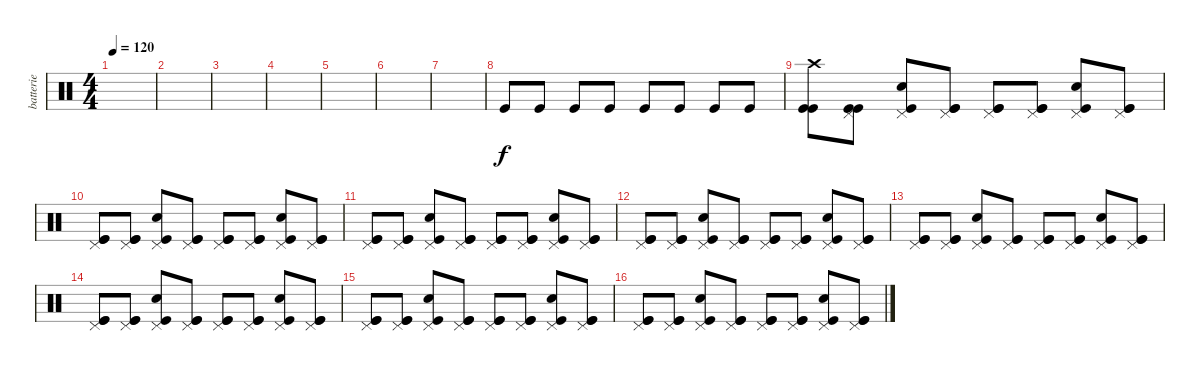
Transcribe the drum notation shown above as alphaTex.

\track ("batterie" "batterie") {instrument percussion}
\staff {score}
\articulation defaults
\ts (4 4)
\tempo 120
\clef neutral
\ks c
|
|
|
|
|
|
|
"Kick (hit)".8 "Kick (hit)".8 "Kick (hit)".8 "Kick (hit)".8 "Kick (hit)".8 "Kick (hit)".8 "Kick (hit)".8 "Kick (hit)".8 |
("Kick (hit)" "Kick (hit)" "Crash high (hit)").8 ("Kick (hit)" "Kick (hit)" "Pedal Hi-Hat (hit)").8 ("Electric Snare (hit)" "Kick (hit)" "Pedal Hi-Hat (hit)").8 ("Kick (hit)" "Kick (hit)" "Pedal Hi-Hat (hit)").8 ("Kick (hit)" "Kick (hit)" "Pedal Hi-Hat (hit)").8 ("Kick (hit)" "Kick (hit)" "Pedal Hi-Hat (hit)").8 ("Electric Snare (hit)" "Kick (hit)" "Pedal Hi-Hat (hit)").8 ("Kick (hit)" "Kick (hit)" "Pedal Hi-Hat (hit)").8 |
("Kick (hit)" "Kick (hit)" "Pedal Hi-Hat (hit)").8 ("Kick (hit)" "Kick (hit)" "Pedal Hi-Hat (hit)").8 ("Electric Snare (hit)" "Kick (hit)" "Pedal Hi-Hat (hit)").8 ("Kick (hit)" "Kick (hit)" "Pedal Hi-Hat (hit)").8 ("Kick (hit)" "Kick (hit)" "Pedal Hi-Hat (hit)").8 ("Kick (hit)" "Kick (hit)" "Pedal Hi-Hat (hit)").8 ("Electric Snare (hit)" "Kick (hit)" "Pedal Hi-Hat (hit)").8 ("Kick (hit)" "Kick (hit)" "Pedal Hi-Hat (hit)").8 |
("Kick (hit)" "Kick (hit)" "Pedal Hi-Hat (hit)").8 ("Kick (hit)" "Kick (hit)" "Pedal Hi-Hat (hit)").8 ("Electric Snare (hit)" "Kick (hit)" "Pedal Hi-Hat (hit)").8 ("Kick (hit)" "Kick (hit)" "Pedal Hi-Hat (hit)").8 ("Kick (hit)" "Kick (hit)" "Pedal Hi-Hat (hit)").8 ("Kick (hit)" "Kick (hit)" "Pedal Hi-Hat (hit)").8 ("Electric Snare (hit)" "Kick (hit)" "Pedal Hi-Hat (hit)").8 ("Kick (hit)" "Kick (hit)" "Pedal Hi-Hat (hit)").8 |
("Kick (hit)" "Kick (hit)" "Pedal Hi-Hat (hit)").8 ("Kick (hit)" "Kick (hit)" "Pedal Hi-Hat (hit)").8 ("Electric Snare (hit)" "Kick (hit)" "Pedal Hi-Hat (hit)").8 ("Kick (hit)" "Kick (hit)" "Pedal Hi-Hat (hit)").8 ("Kick (hit)" "Kick (hit)" "Pedal Hi-Hat (hit)").8 ("Kick (hit)" "Kick (hit)" "Pedal Hi-Hat (hit)").8 ("Electric Snare (hit)" "Kick (hit)" "Pedal Hi-Hat (hit)").8 ("Kick (hit)" "Kick (hit)" "Pedal Hi-Hat (hit)").8 |
("Kick (hit)" "Kick (hit)" "Pedal Hi-Hat (hit)").8 ("Kick (hit)" "Kick (hit)" "Pedal Hi-Hat (hit)").8 ("Electric Snare (hit)" "Kick (hit)" "Pedal Hi-Hat (hit)").8 ("Kick (hit)" "Kick (hit)" "Pedal Hi-Hat (hit)").8 ("Kick (hit)" "Kick (hit)" "Pedal Hi-Hat (hit)").8 ("Kick (hit)" "Kick (hit)" "Pedal Hi-Hat (hit)").8 ("Electric Snare (hit)" "Kick (hit)" "Pedal Hi-Hat (hit)").8 ("Kick (hit)" "Kick (hit)" "Pedal Hi-Hat (hit)").8 |
("Kick (hit)" "Kick (hit)" "Pedal Hi-Hat (hit)").8 ("Kick (hit)" "Kick (hit)" "Pedal Hi-Hat (hit)").8 ("Electric Snare (hit)" "Kick (hit)" "Pedal Hi-Hat (hit)").8 ("Kick (hit)" "Kick (hit)" "Pedal Hi-Hat (hit)").8 ("Kick (hit)" "Kick (hit)" "Pedal Hi-Hat (hit)").8 ("Kick (hit)" "Kick (hit)" "Pedal Hi-Hat (hit)").8 ("Electric Snare (hit)" "Kick (hit)" "Pedal Hi-Hat (hit)").8 ("Kick (hit)" "Kick (hit)" "Pedal Hi-Hat (hit)").8 |
("Kick (hit)" "Kick (hit)" "Pedal Hi-Hat (hit)").8 ("Kick (hit)" "Kick (hit)" "Pedal Hi-Hat (hit)").8 ("Electric Snare (hit)" "Kick (hit)" "Pedal Hi-Hat (hit)").8 ("Kick (hit)" "Kick (hit)" "Pedal Hi-Hat (hit)").8 ("Kick (hit)" "Kick (hit)" "Pedal Hi-Hat (hit)").8 ("Kick (hit)" "Kick (hit)" "Pedal Hi-Hat (hit)").8 ("Electric Snare (hit)" "Kick (hit)" "Pedal Hi-Hat (hit)").8 ("Kick (hit)" "Kick (hit)" "Pedal Hi-Hat (hit)").8 |
("Kick (hit)" "Kick (hit)" "Pedal Hi-Hat (hit)").8 ("Kick (hit)" "Kick (hit)" "Pedal Hi-Hat (hit)").8 ("Electric Snare (hit)" "Kick (hit)" "Pedal Hi-Hat (hit)").8 ("Kick (hit)" "Kick (hit)" "Pedal Hi-Hat (hit)").8 ("Kick (hit)" "Kick (hit)" "Pedal Hi-Hat (hit)").8 ("Kick (hit)" "Kick (hit)" "Pedal Hi-Hat (hit)").8 ("Electric Snare (hit)" "Kick (hit)" "Pedal Hi-Hat (hit)").8 ("Kick (hit)" "Kick (hit)" "Pedal Hi-Hat (hit)").8
